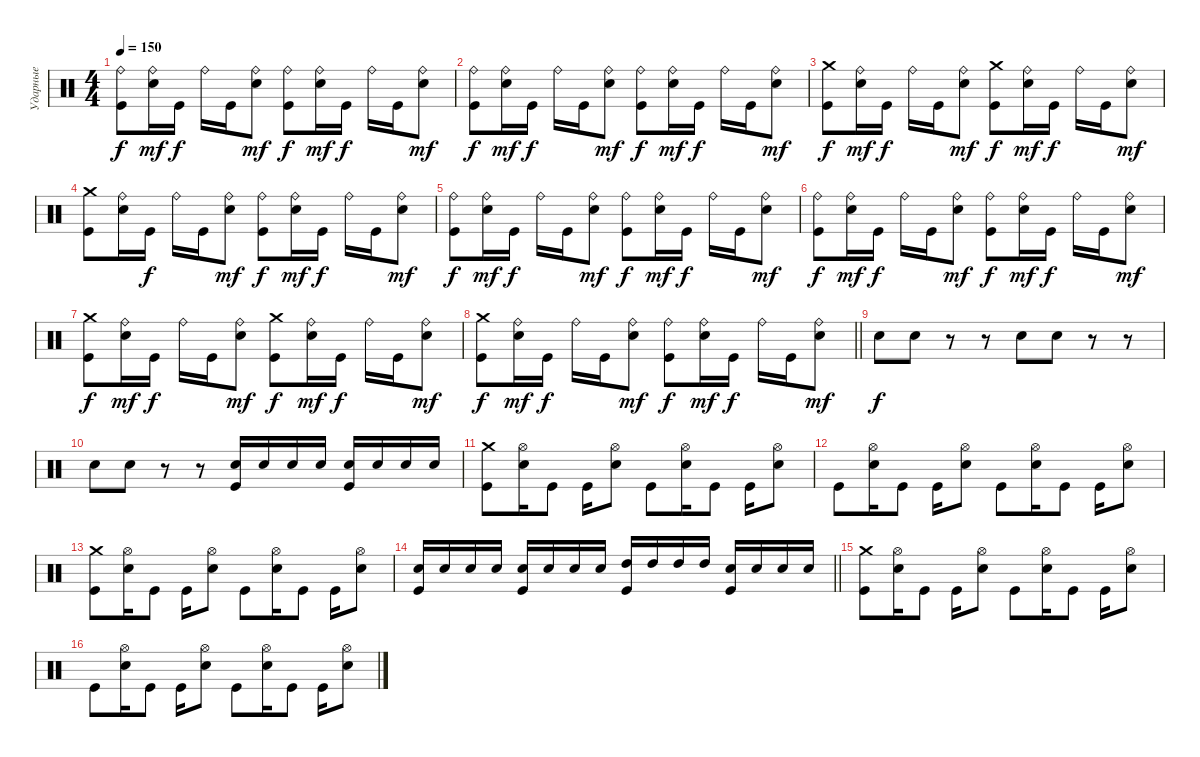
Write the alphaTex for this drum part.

\track ("Ударные" "Ударные") {instrument percussion}
\staff {score}
\articulation defaults
\ts (4 4)
\tempo 150
\clef neutral
\ks c
("Ride (bell)" "Kick (hit)").8{dy f} ("Ride (bell)" "Electric Snare (hit)").16{dy mf} "Kick (hit)".16{dy f} "Ride (bell)".16 "Kick (hit)".16 ("Ride (bell)" "Electric Snare (hit)").8{dy mf} ("Ride (bell)" "Kick (hit)").8{dy f} ("Ride (bell)" "Electric Snare (hit)").16{dy mf} "Kick (hit)".16{dy f} "Ride (bell)".16 "Kick (hit)".16 ("Ride (bell)" "Electric Snare (hit)").8{dy mf} |
("Ride (bell)" "Kick (hit)").8{dy f} ("Ride (bell)" "Electric Snare (hit)").16{dy mf} "Kick (hit)".16{dy f} "Ride (bell)".16 "Kick (hit)".16 ("Ride (bell)" "Electric Snare (hit)").8{dy mf} ("Ride (bell)" "Kick (hit)").8{dy f} ("Ride (bell)" "Electric Snare (hit)").16{dy mf} "Kick (hit)".16{dy f} "Ride (bell)".16 "Kick (hit)".16 ("Ride (bell)" "Electric Snare (hit)").8{dy mf} |
("Crash medium (hit)" "Kick (hit)").8{dy f} ("Ride (bell)" "Electric Snare (hit)").16{dy mf} "Kick (hit)".16{dy f} "Ride (bell)".16 "Kick (hit)".16 ("Ride (bell)" "Electric Snare (hit)").8{dy mf} ("Crash medium (hit)" "Kick (hit)").8{dy f} ("Ride (bell)" "Electric Snare (hit)").16{dy mf} "Kick (hit)".16{dy f} "Ride (bell)".16 "Kick (hit)".16 ("Ride (bell)" "Electric Snare (hit)").8{dy mf} |
("Crash medium (hit)" "Kick (hit)").8 ("Ride (bell)" "Electric Snare (hit)").16 "Kick (hit)".16{dy f} "Ride (bell)".16 "Kick (hit)".16 ("Ride (bell)" "Electric Snare (hit)").8{dy mf} ("Ride (bell)" "Kick (hit)").8{dy f} ("Ride (bell)" "Electric Snare (hit)").16{dy mf} "Kick (hit)".16{dy f} "Ride (bell)".16 "Kick (hit)".16 ("Ride (bell)" "Electric Snare (hit)").8{dy mf} |
("Ride (bell)" "Kick (hit)").8{dy f} ("Ride (bell)" "Electric Snare (hit)").16{dy mf} "Kick (hit)".16{dy f} "Ride (bell)".16 "Kick (hit)".16 ("Ride (bell)" "Electric Snare (hit)").8{dy mf} ("Ride (bell)" "Kick (hit)").8{dy f} ("Ride (bell)" "Electric Snare (hit)").16{dy mf} "Kick (hit)".16{dy f} "Ride (bell)".16 "Kick (hit)".16 ("Ride (bell)" "Electric Snare (hit)").8{dy mf} |
("Ride (bell)" "Kick (hit)").8{dy f} ("Ride (bell)" "Electric Snare (hit)").16{dy mf} "Kick (hit)".16{dy f} "Ride (bell)".16 "Kick (hit)".16 ("Ride (bell)" "Electric Snare (hit)").8{dy mf} ("Ride (bell)" "Kick (hit)").8{dy f} ("Ride (bell)" "Electric Snare (hit)").16{dy mf} "Kick (hit)".16{dy f} "Ride (bell)".16 "Kick (hit)".16 ("Ride (bell)" "Electric Snare (hit)").8{dy mf} |
("Crash medium (hit)" "Kick (hit)").8{dy f} ("Ride (bell)" "Electric Snare (hit)").16{dy mf} "Kick (hit)".16{dy f} "Ride (bell)".16 "Kick (hit)".16 ("Ride (bell)" "Electric Snare (hit)").8{dy mf} ("Crash medium (hit)" "Kick (hit)").8{dy f} ("Ride (bell)" "Electric Snare (hit)").16{dy mf} "Kick (hit)".16{dy f} "Ride (bell)".16 "Kick (hit)".16 ("Ride (bell)" "Electric Snare (hit)").8{dy mf} |
\barLineRight lightlight
("Crash medium (hit)" "Kick (hit)").8{dy f} ("Ride (bell)" "Electric Snare (hit)").16{dy mf} "Kick (hit)".16{dy f} "Ride (bell)".16 "Kick (hit)".16 ("Ride (bell)" "Electric Snare (hit)").8{dy mf} ("Ride (bell)" "Kick (hit)").8{dy f} ("Ride (bell)" "Electric Snare (hit)").16{dy mf} "Kick (hit)".16{dy f} "Ride (bell)".16 "Kick (hit)".16 ("Ride (bell)" "Electric Snare (hit)").8{dy mf} |
"Electric Snare (hit)".8{dy f} "Electric Snare (hit)".8 r.8 r.8 "Electric Snare (hit)".8 "Electric Snare (hit)".8 r.8 r.8 |
"Electric Snare (hit)".8 "Electric Snare (hit)".8 r.8 r.8 ("Electric Snare (hit)" "Kick (hit)").16 "Electric Snare (hit)".16 "Electric Snare (hit)".16 "Electric Snare (hit)".16 ("Electric Snare (hit)" "Kick (hit)").16 "Electric Snare (hit)".16 "Electric Snare (hit)".16 "Electric Snare (hit)".16 |
("Crash medium (hit)" "Kick (hit)").8 ("Hi-Hat (open)" "Electric Snare (hit)").16 "Kick (hit)".8 "Kick (hit)".16 ("Hi-Hat (open)" "Electric Snare (hit)").8 "Kick (hit)".8 ("Hi-Hat (open)" "Electric Snare (hit)").16 "Kick (hit)".8 "Kick (hit)".16 ("Hi-Hat (open)" "Electric Snare (hit)").8 |
"Kick (hit)".8 ("Hi-Hat (open)" "Electric Snare (hit)").16 "Kick (hit)".8 "Kick (hit)".16 ("Hi-Hat (open)" "Electric Snare (hit)").8 "Kick (hit)".8 ("Hi-Hat (open)" "Electric Snare (hit)").16 "Kick (hit)".8 "Kick (hit)".16 ("Hi-Hat (open)" "Electric Snare (hit)").8 |
("Crash medium (hit)" "Kick (hit)").8 ("Hi-Hat (open)" "Electric Snare (hit)").16 "Kick (hit)".8 "Kick (hit)".16 ("Hi-Hat (open)" "Electric Snare (hit)").8 "Kick (hit)".8 ("Hi-Hat (open)" "Electric Snare (hit)").16 "Kick (hit)".8 "Kick (hit)".16 ("Hi-Hat (open)" "Electric Snare (hit)").8 |
\barLineRight lightlight
("Electric Snare (hit)" "Kick (hit)").16 "Electric Snare (hit)".16 "Electric Snare (hit)".16 "Electric Snare (hit)".16 ("Electric Snare (hit)" "Kick (hit)").16 "Electric Snare (hit)".16 "Electric Snare (hit)".16 "Electric Snare (hit)".16 ("High Tom (hit)" "Kick (hit)").16 "High Tom (hit)".16 "High Tom (hit)".16 "High Tom (hit)".16 ("Electric Snare (hit)" "Kick (hit)").16 "Electric Snare (hit)".16 "Electric Snare (hit)".16 "Electric Snare (hit)".16 |
("Crash medium (hit)" "Kick (hit)").8 ("Hi-Hat (open)" "Electric Snare (hit)").16 "Kick (hit)".8 "Kick (hit)".16 ("Hi-Hat (open)" "Electric Snare (hit)").8 "Kick (hit)".8 ("Hi-Hat (open)" "Electric Snare (hit)").16 "Kick (hit)".8 "Kick (hit)".16 ("Hi-Hat (open)" "Electric Snare (hit)").8 |
"Kick (hit)".8 ("Hi-Hat (open)" "Electric Snare (hit)").16 "Kick (hit)".8 "Kick (hit)".16 ("Hi-Hat (open)" "Electric Snare (hit)").8 "Kick (hit)".8 ("Hi-Hat (open)" "Electric Snare (hit)").16 "Kick (hit)".8 "Kick (hit)".16 ("Hi-Hat (open)" "Electric Snare (hit)").8
